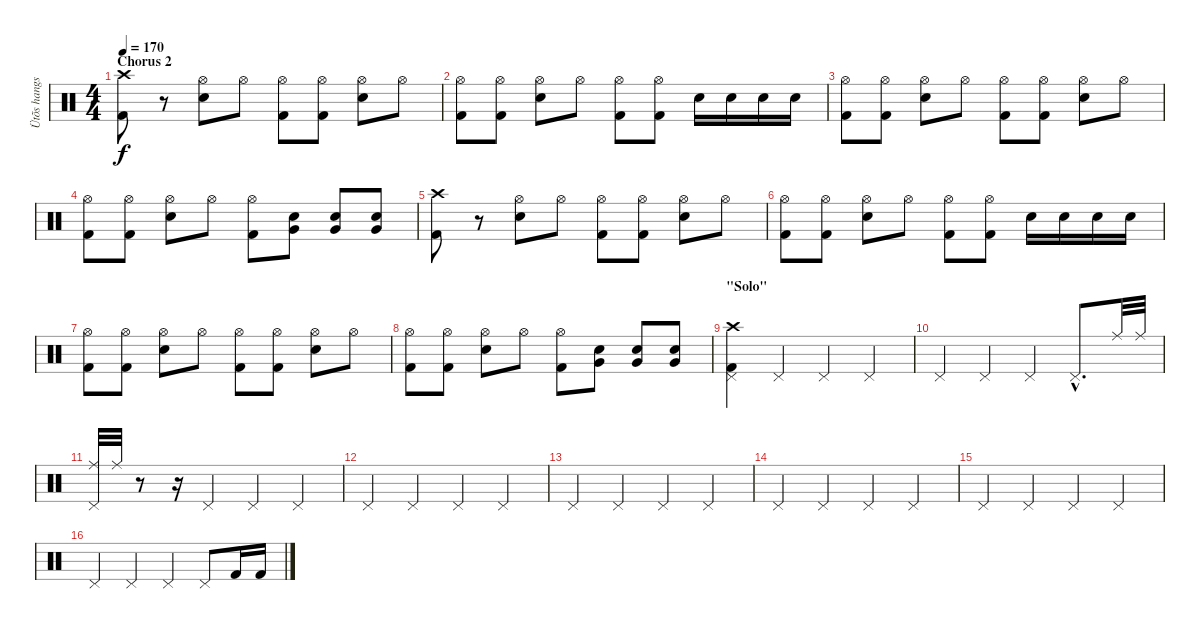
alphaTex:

\track ("Ütõs hangszer" "Ütõs hangs") {instrument percussion}
\staff {score}
\articulation defaults
\ts (4 4)
\section ("" "Chorus 2")
\tempo 170
\clef neutral
\ks c
("Crash high (hit)" "Kick (hit) 2").8{dy f} r.8 ("Hi-Hat (open)" "Electric Snare (hit)").8 "Hi-Hat (open)".8 ("Hi-Hat (open)" "Kick (hit) 2").8 ("Hi-Hat (open)" "Kick (hit) 2").8 ("Hi-Hat (open)" "Electric Snare (hit)").8 "Hi-Hat (open)".8 |
("Hi-Hat (open)" "Kick (hit) 2").8 ("Hi-Hat (open)" "Kick (hit) 2").8 ("Hi-Hat (open)" "Electric Snare (hit)").8 "Hi-Hat (open)".8 ("Hi-Hat (open)" "Kick (hit) 2").8 ("Hi-Hat (open)" "Kick (hit) 2").8 "Electric Snare (hit)".16 "Electric Snare (hit)".16 "Electric Snare (hit)".16 "Electric Snare (hit)".16 |
("Hi-Hat (open)" "Kick (hit) 2").8 ("Hi-Hat (open)" "Kick (hit) 2").8 ("Hi-Hat (open)" "Electric Snare (hit)").8 "Hi-Hat (open)".8 ("Hi-Hat (open)" "Kick (hit) 2").8 ("Hi-Hat (open)" "Kick (hit) 2").8 ("Hi-Hat (open)" "Electric Snare (hit)").8 "Hi-Hat (open)".8 |
("Hi-Hat (open)" "Kick (hit) 2").8 ("Hi-Hat (open)" "Kick (hit) 2").8 ("Hi-Hat (open)" "Electric Snare (hit)").8 "Hi-Hat (open)".8 ("Hi-Hat (open)" "Kick (hit) 2").8 ("Very Low Tom (hit)" "Electric Snare (hit)").8 ("Very Low Tom (hit)" "Electric Snare (hit)").8 ("Very Low Tom (hit)" "Electric Snare (hit)").8 |
("Crash high (hit)" "Kick (hit) 2").8 r.8 ("Hi-Hat (open)" "Electric Snare (hit)").8 "Hi-Hat (open)".8 ("Hi-Hat (open)" "Kick (hit) 2").8 ("Hi-Hat (open)" "Kick (hit) 2").8 ("Hi-Hat (open)" "Electric Snare (hit)").8 "Hi-Hat (open)".8 |
("Hi-Hat (open)" "Kick (hit) 2").8 ("Hi-Hat (open)" "Kick (hit) 2").8 ("Hi-Hat (open)" "Electric Snare (hit)").8 "Hi-Hat (open)".8 ("Hi-Hat (open)" "Kick (hit) 2").8 ("Hi-Hat (open)" "Kick (hit) 2").8 "Electric Snare (hit)".16 "Electric Snare (hit)".16 "Electric Snare (hit)".16 "Electric Snare (hit)".16 |
("Hi-Hat (open)" "Kick (hit) 2").8 ("Hi-Hat (open)" "Kick (hit) 2").8 ("Hi-Hat (open)" "Electric Snare (hit)").8 "Hi-Hat (open)".8 ("Hi-Hat (open)" "Kick (hit) 2").8 ("Hi-Hat (open)" "Kick (hit) 2").8 ("Hi-Hat (open)" "Electric Snare (hit)").8 "Hi-Hat (open)".8 |
("Hi-Hat (open)" "Kick (hit) 2").8 ("Hi-Hat (open)" "Kick (hit) 2").8 ("Hi-Hat (open)" "Electric Snare (hit)").8 "Hi-Hat (open)".8 ("Hi-Hat (open)" "Kick (hit) 2").8 ("Very Low Tom (hit)" "Electric Snare (hit)").8 ("Very Low Tom (hit)" "Electric Snare (hit)").8 ("Very Low Tom (hit)" "Electric Snare (hit)").8 |
\section ("" "\"Solo\"")
("Crash high (hit)" "Pedal Hi-Hat (hit)" "Kick (hit) 2").4 "Pedal Hi-Hat (hit)".4 "Pedal Hi-Hat (hit)".4 "Pedal Hi-Hat (hit)".4 |
"Pedal Hi-Hat (hit)".4 "Pedal Hi-Hat (hit)".4 "Pedal Hi-Hat (hit)".4 "Pedal Hi-Hat (hit)"{hac}.8{d} "Ride (middle)".32 "Ride (middle)".32 |
("Ride (middle)" "Pedal Hi-Hat (hit)").32 "Ride (middle)".32 r.8 r.16 "Pedal Hi-Hat (hit)".4 "Pedal Hi-Hat (hit)".4 "Pedal Hi-Hat (hit)".4 |
"Pedal Hi-Hat (hit)".4 "Pedal Hi-Hat (hit)".4 "Pedal Hi-Hat (hit)".4 "Pedal Hi-Hat (hit)".4 |
"Pedal Hi-Hat (hit)".4 "Pedal Hi-Hat (hit)".4 "Pedal Hi-Hat (hit)".4 "Pedal Hi-Hat (hit)".4 |
"Pedal Hi-Hat (hit)".4 "Pedal Hi-Hat (hit)".4 "Pedal Hi-Hat (hit)".4 "Pedal Hi-Hat (hit)".4 |
"Pedal Hi-Hat (hit)".4 "Pedal Hi-Hat (hit)".4 "Pedal Hi-Hat (hit)".4 "Pedal Hi-Hat (hit)".4 |
"Pedal Hi-Hat (hit)".4 "Pedal Hi-Hat (hit)".4 "Pedal Hi-Hat (hit)".4 "Pedal Hi-Hat (hit)".8 "Kick (hit) 2".16 "Kick (hit) 2".16
